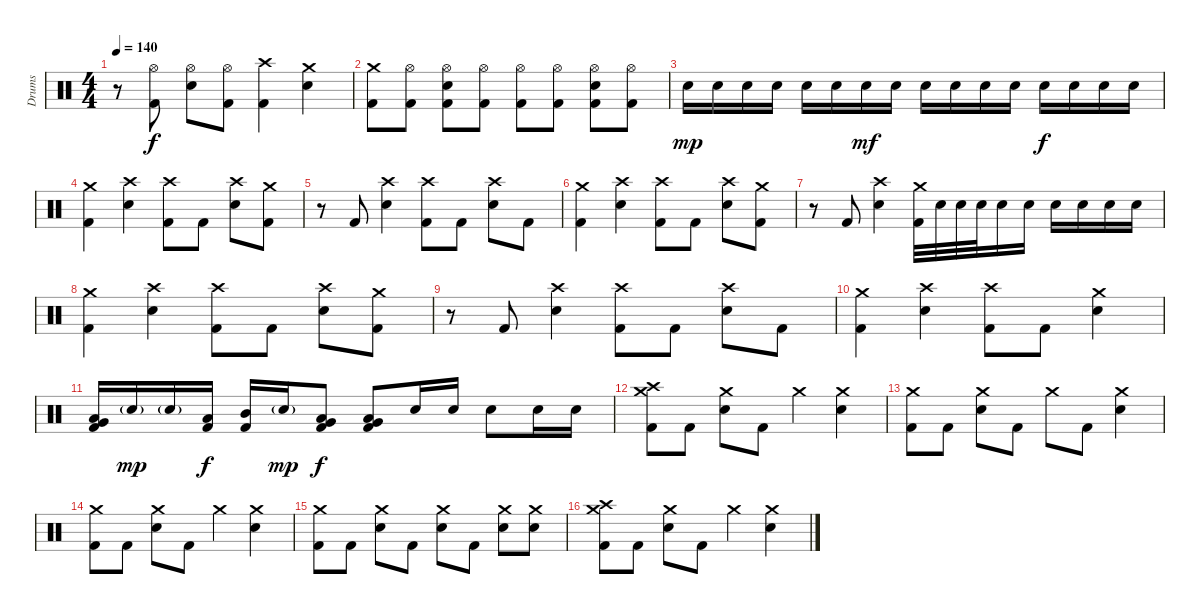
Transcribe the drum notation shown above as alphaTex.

\track ("Drums" "Drums") {instrument percussion}
\staff {score}
\articulation defaults
\ts (4 4)
\tempo 140
\clef neutral
\ks c
r.8{dy f} ("Hi-Hat (open)" "Kick (hit) 2").8 ("Hi-Hat (open)" "Electric Snare (hit)").8 ("Hi-Hat (open)" "Kick (hit) 2").8 ("Crash high (hit)" "Kick (hit) 2").4 ("Crash medium (hit)" "Electric Snare (hit)").4 |
("Crash medium (hit)" "Kick (hit) 2").8 ("Hi-Hat (open)" "Kick (hit) 2").8 ("Hi-Hat (open)" "Electric Snare (hit)" "Kick (hit) 2").8 ("Hi-Hat (open)" "Kick (hit) 2").8 ("Hi-Hat (open)" "Kick (hit) 2").8 ("Hi-Hat (open)" "Kick (hit) 2").8 ("Hi-Hat (open)" "Electric Snare (hit)" "Kick (hit) 2").8 ("Hi-Hat (open)" "Kick (hit) 2").8 |
"Electric Snare (hit)".16{dy mp} "Electric Snare (hit)".16 "Electric Snare (hit)".16 "Electric Snare (hit)".16 "Electric Snare (hit)".16 "Electric Snare (hit)".16 "Electric Snare (hit)".16{dy mf} "Electric Snare (hit)".16 "Electric Snare (hit)".16 "Electric Snare (hit)".16 "Electric Snare (hit)".16 "Electric Snare (hit)".16 "Electric Snare (hit)".16{dy f} "Electric Snare (hit)".16 "Electric Snare (hit)".16 "Electric Snare (hit)".16 |
("Crash medium (hit)" "Kick (hit) 2").4 ("Crash high (hit)" "Electric Snare (hit)").4 ("Crash high (hit)" "Kick (hit) 2").8 "Kick (hit) 2".8 ("Crash high (hit)" "Electric Snare (hit)").8 ("Crash medium (hit)" "Kick (hit) 2").8 |
r.8 "Kick (hit) 2".8 ("Crash high (hit)" "Electric Snare (hit)").4 ("Crash high (hit)" "Kick (hit) 2").8 "Kick (hit) 2".8 ("Crash high (hit)" "Electric Snare (hit)").8 "Kick (hit) 2".8 |
("Crash medium (hit)" "Kick (hit) 2").4 ("Crash high (hit)" "Electric Snare (hit)").4 ("Crash high (hit)" "Kick (hit) 2").8 "Kick (hit) 2".8 ("Crash high (hit)" "Electric Snare (hit)").8 ("Crash medium (hit)" "Kick (hit) 2").8 |
r.8 "Kick (hit) 2".8 ("Crash high (hit)" "Electric Snare (hit)").4 ("Crash medium (hit)" "Kick (hit) 2").32 "Electric Snare (hit)".32 "Electric Snare (hit)".32 "Electric Snare (hit)".32 "Electric Snare (hit)".16 "Electric Snare (hit)".16 "Electric Snare (hit)".16 "Electric Snare (hit)".16 "Electric Snare (hit)".16 "Electric Snare (hit)".16 |
("Crash medium (hit)" "Kick (hit) 2").4 ("Crash high (hit)" "Electric Snare (hit)").4 ("Crash high (hit)" "Kick (hit) 2").8 "Kick (hit) 2".8 ("Crash high (hit)" "Electric Snare (hit)").8 ("Crash medium (hit)" "Kick (hit) 2").8 |
r.8 "Kick (hit) 2".8 ("Crash high (hit)" "Electric Snare (hit)").4 ("Crash high (hit)" "Kick (hit) 2").8 "Kick (hit) 2".8 ("Crash high (hit)" "Electric Snare (hit)").8 "Kick (hit) 2".8 |
("Crash medium (hit)" "Kick (hit) 2").4 ("Crash high (hit)" "Electric Snare (hit)").4 ("Crash high (hit)" "Kick (hit) 2").8 "Kick (hit) 2".8 ("Crash medium (hit)" "Electric Snare (hit)").4 |
("Very Low Tom (hit)" "Low Tom (hit)" "Kick (hit) 2").16 "Electric Snare (hit)"{g}.16{dy mp} "Electric Snare (hit)"{g}.16 ("Low Tom (hit)" "Kick (hit) 2").16{dy f} ("Mid Tom (hit)" "Kick (hit) 2").16 "Electric Snare (hit)"{g}.16{dy mp} ("Very Low Tom (hit)" "Low Tom (hit)" "Kick (hit) 2").8{dy f} ("Very Low Tom (hit)" "Low Tom (hit)" "Kick (hit) 2").8 "Electric Snare (hit)".16 "Electric Snare (hit)".16 "Electric Snare (hit)".8 "Electric Snare (hit)".16 "Electric Snare (hit)".16 |
("Crash medium (hit)" "Crash high (hit)" "Kick (hit) 2").8 "Kick (hit) 2".8 ("Crash medium (hit)" "Electric Snare (hit)").8 "Kick (hit) 2".8 "Crash medium (hit)".4 ("Crash medium (hit)" "Electric Snare (hit)").4 |
("Crash medium (hit)" "Kick (hit) 2").8 "Kick (hit) 2".8 ("Crash medium (hit)" "Electric Snare (hit)").8 "Kick (hit) 2".8 "Crash medium (hit)".8 "Kick (hit) 2".8 ("Crash medium (hit)" "Electric Snare (hit)").4 |
("Crash medium (hit)" "Kick (hit) 2").8 "Kick (hit) 2".8 ("Crash medium (hit)" "Electric Snare (hit)").8 "Kick (hit) 2".8 "Crash medium (hit)".4 ("Crash medium (hit)" "Electric Snare (hit)").4 |
("Crash medium (hit)" "Kick (hit) 2").8 "Kick (hit) 2".8 ("Crash medium (hit)" "Electric Snare (hit)").8 "Kick (hit) 2".8 ("Crash medium (hit)" "Electric Snare (hit)").8 "Kick (hit) 2".8 ("Crash medium (hit)" "Electric Snare (hit)").8 ("Crash medium (hit)" "Electric Snare (hit)").8 |
("Crash medium (hit)" "Crash high (hit)" "Kick (hit) 2").8 "Kick (hit) 2".8 ("Crash medium (hit)" "Electric Snare (hit)").8 "Kick (hit) 2".8 "Crash medium (hit)".4 ("Crash medium (hit)" "Electric Snare (hit)").4
